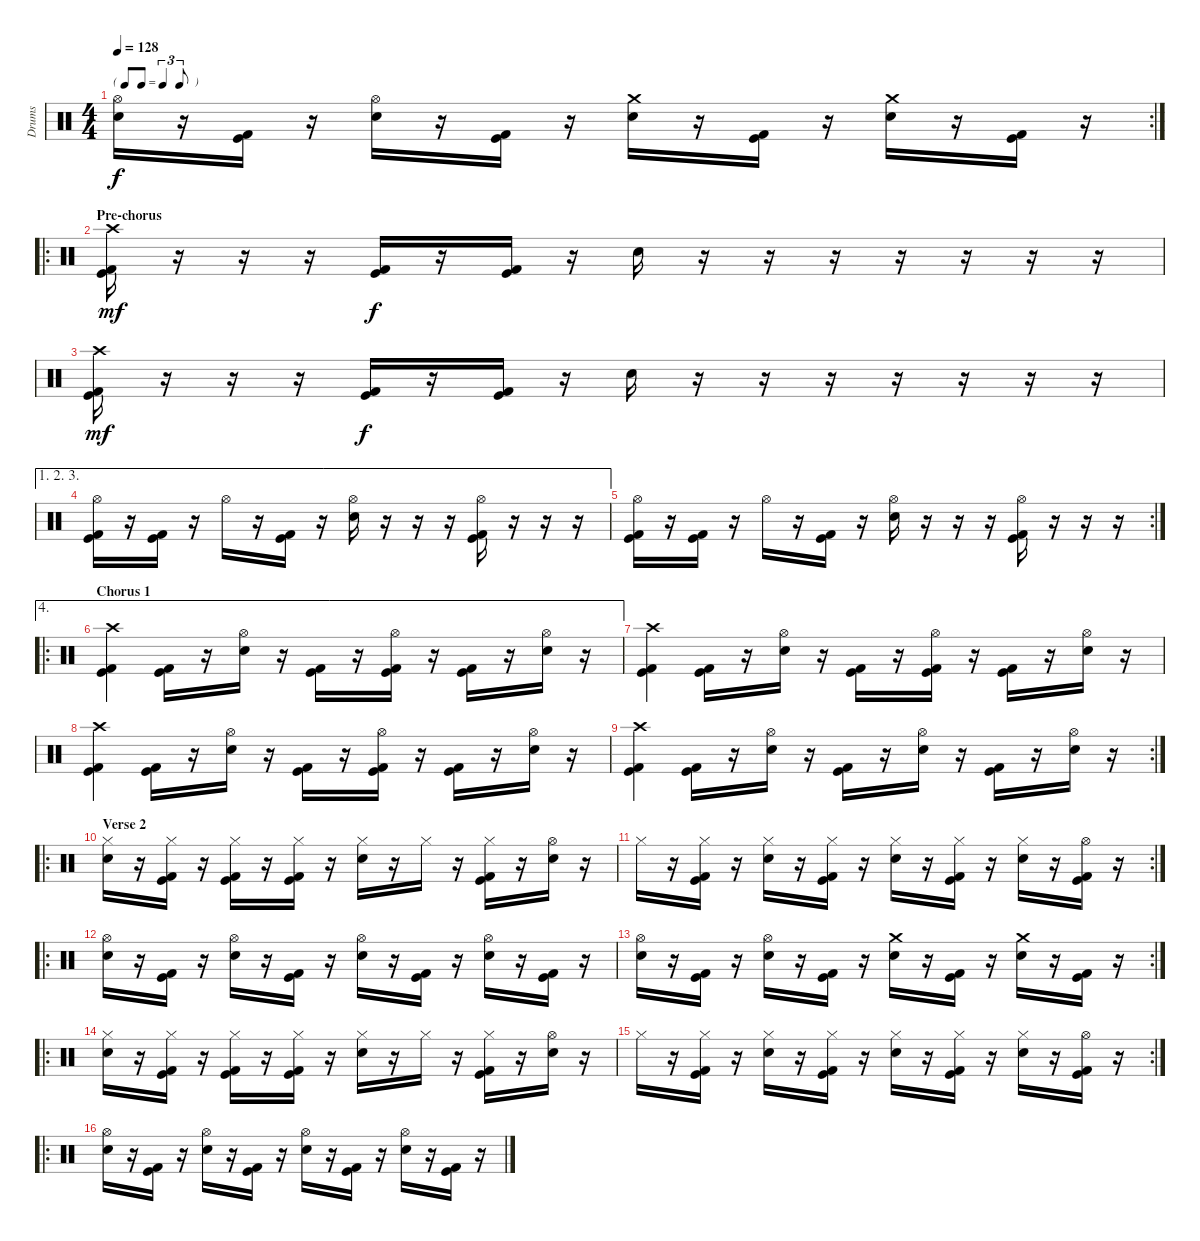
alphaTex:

\track ("Drums" "Drums") {instrument percussion}
\staff {score}
\articulation defaults
\rc 2
\ts (4 4)
\tf triplet8th
\tempo 128
\clef neutral
\ks c
("Hi-Hat (open)" "Electric Snare (hit)").16{dy f} r.16 ("Kick (hit)" "Kick (hit) 2").16 r.16 ("Hi-Hat (open)" "Electric Snare (hit)").16 r.16 ("Kick (hit)" "Kick (hit) 2").16 r.16 ("Crash medium (hit)" "Electric Snare (hit)").16 r.16 ("Kick (hit)" "Kick (hit) 2").16 r.16 ("Crash medium (hit)" "Electric Snare (hit)").16 r.16 ("Kick (hit)" "Kick (hit) 2").16 r.16 |
\ro
\section ("" "Pre-chorus")
("Crash high (hit)" "Kick (hit)" "Kick (hit) 2").16{dy mf} r.16 r.16 r.16 ("Kick (hit)" "Kick (hit) 2").16{dy f} r.16 ("Kick (hit)" "Kick (hit) 2").16 r.16 "Electric Snare (hit)".16 r.16 r.16 r.16 r.16 r.16 r.16 r.16 |
("Crash high (hit)" "Kick (hit)" "Kick (hit) 2").16{dy mf} r.16 r.16 r.16 ("Kick (hit)" "Kick (hit) 2").16{dy f} r.16 ("Kick (hit)" "Kick (hit) 2").16 r.16 "Electric Snare (hit)".16 r.16 r.16 r.16 r.16 r.16 r.16 r.16 |
\ae (1 2 3)
("Hi-Hat (open)" "Kick (hit) 2" "Kick (hit)").16 r.16 ("Kick (hit) 2" "Kick (hit)").16 r.16 "Hi-Hat (open)".16 r.16 ("Kick (hit)" "Kick (hit) 2").16 r.16 ("Hi-Hat (open)" "Electric Snare (hit)").16 r.16 r.16 r.16 ("Hi-Hat (open)" "Kick (hit)" "Kick (hit) 2").16 r.16 r.16 r.16 |
\rc 2
("Hi-Hat (open)" "Kick (hit)" "Kick (hit) 2").16 r.16 ("Kick (hit)" "Kick (hit) 2").16 r.16 "Hi-Hat (open)".16 r.16 ("Kick (hit)" "Kick (hit) 2").16 r.16 ("Hi-Hat (open)" "Electric Snare (hit)").16 r.16 r.16 r.16 ("Hi-Hat (open)" "Kick (hit)" "Kick (hit) 2").16 r.16 r.16 r.16 |
\ae 4
\ro
\section ("" "Chorus 1")
("Crash high (hit)" "Kick (hit)" "Kick (hit) 2").4 ("Kick (hit)" "Kick (hit) 2").16 r.16 ("Hi-Hat (open)" "Electric Snare (hit)").16 r.16 ("Kick (hit) 2" "Kick (hit)").16 r.16 ("Hi-Hat (open)" "Kick (hit)" "Kick (hit) 2").16 r.16 ("Kick (hit)" "Kick (hit) 2").16 r.16 ("Hi-Hat (open)" "Electric Snare (hit)").16 r.16 |
("Crash high (hit)" "Kick (hit)" "Kick (hit) 2").4 ("Kick (hit)" "Kick (hit) 2").16 r.16 ("Hi-Hat (open)" "Electric Snare (hit)").16 r.16 ("Kick (hit) 2" "Kick (hit)").16 r.16 ("Hi-Hat (open)" "Kick (hit)" "Kick (hit) 2").16 r.16 ("Kick (hit)" "Kick (hit) 2").16 r.16 ("Hi-Hat (open)" "Electric Snare (hit)").16 r.16 |
("Crash high (hit)" "Kick (hit)" "Kick (hit) 2").4 ("Kick (hit)" "Kick (hit) 2").16 r.16 ("Hi-Hat (open)" "Electric Snare (hit)").16 r.16 ("Kick (hit) 2" "Kick (hit)").16 r.16 ("Hi-Hat (open)" "Kick (hit)" "Kick (hit) 2").16 r.16 ("Kick (hit)" "Kick (hit) 2").16 r.16 ("Hi-Hat (open)" "Electric Snare (hit)").16 r.16 |
\rc 2
("Crash high (hit)" "Kick (hit)" "Kick (hit) 2").4 ("Kick (hit)" "Kick (hit) 2").16 r.16 ("Hi-Hat (open)" "Electric Snare (hit)").16 r.16 ("Kick (hit) 2" "Kick (hit)").16 r.16 ("Hi-Hat (open)" "Electric Snare (hit)").16 r.16 ("Kick (hit)" "Kick (hit) 2").16 r.16 ("Hi-Hat (open)" "Electric Snare (hit)").16 r.16 |
\ro
\section ("" "Verse 2")
("Hi-Hat (closed)" "Electric Snare (hit)").16 r.16 ("Hi-Hat (closed)" "Kick (hit) 2" "Kick (hit)").16 r.16 ("Hi-Hat (closed)" "Kick (hit)" "Kick (hit) 2").16 r.16 ("Hi-Hat (closed)" "Kick (hit)" "Kick (hit) 2").16 r.16 ("Hi-Hat (closed)" "Electric Snare (hit)").16 r.16 "Hi-Hat (closed)".16 r.16 ("Hi-Hat (closed)" "Kick (hit)" "Kick (hit) 2").16 r.16 ("Hi-Hat (open)" "Electric Snare (hit)").16 r.16 |
\rc 2 "Hi-Hat (closed)".16
r.16 ("Hi-Hat (closed)" "Kick (hit)" "Kick (hit) 2").16 r.16 ("Hi-Hat (closed)" "Electric Snare (hit)").16 r.16 ("Hi-Hat (closed)" "Kick (hit)" "Kick (hit) 2").16 r.16 ("Hi-Hat (closed)" "Electric Snare (hit)").16 r.16 ("Hi-Hat (closed)" "Kick (hit)" "Kick (hit) 2").16 r.16 ("Hi-Hat (closed)" "Electric Snare (hit)").16 r.16 ("Hi-Hat (open)" "Kick (hit)" "Kick (hit) 2").16 r.16 |
\ro
("Hi-Hat (open)" "Electric Snare (hit)").16 r.16 ("Kick (hit)" "Kick (hit) 2").16 r.16 ("Hi-Hat (open)" "Electric Snare (hit)").16 r.16 ("Kick (hit)" "Kick (hit) 2").16 r.16 ("Hi-Hat (open)" "Electric Snare (hit)").16 r.16 ("Kick (hit)" "Kick (hit) 2").16 r.16 ("Hi-Hat (open)" "Electric Snare (hit)").16 r.16 ("Kick (hit)" "Kick (hit) 2").16 r.16 |
\rc 2
("Hi-Hat (open)" "Electric Snare (hit)").16 r.16 ("Kick (hit)" "Kick (hit) 2").16 r.16 ("Hi-Hat (open)" "Electric Snare (hit)").16 r.16 ("Kick (hit)" "Kick (hit) 2").16 r.16 ("Crash medium (hit)" "Electric Snare (hit)").16 r.16 ("Kick (hit)" "Kick (hit) 2").16 r.16 ("Crash medium (hit)" "Electric Snare (hit)").16 r.16 ("Kick (hit)" "Kick (hit) 2").16 r.16 |
\ro
("Hi-Hat (closed)" "Electric Snare (hit)").16 r.16 ("Hi-Hat (closed)" "Kick (hit) 2" "Kick (hit)").16 r.16 ("Hi-Hat (closed)" "Kick (hit)" "Kick (hit) 2").16 r.16 ("Hi-Hat (closed)" "Kick (hit)" "Kick (hit) 2").16 r.16 ("Hi-Hat (closed)" "Electric Snare (hit)").16 r.16 "Hi-Hat (closed)".16 r.16 ("Hi-Hat (closed)" "Kick (hit)" "Kick (hit) 2").16 r.16 ("Hi-Hat (open)" "Electric Snare (hit)").16 r.16 |
\rc 2 "Hi-Hat (closed)".16
r.16 ("Hi-Hat (closed)" "Kick (hit)" "Kick (hit) 2").16 r.16 ("Hi-Hat (closed)" "Electric Snare (hit)").16 r.16 ("Hi-Hat (closed)" "Kick (hit)" "Kick (hit) 2").16 r.16 ("Hi-Hat (closed)" "Electric Snare (hit)").16 r.16 ("Hi-Hat (closed)" "Kick (hit)" "Kick (hit) 2").16 r.16 ("Hi-Hat (closed)" "Electric Snare (hit)").16 r.16 ("Hi-Hat (open)" "Kick (hit)" "Kick (hit) 2").16 r.16 |
\ro
("Hi-Hat (open)" "Electric Snare (hit)").16 r.16 ("Kick (hit)" "Kick (hit) 2").16 r.16 ("Hi-Hat (open)" "Electric Snare (hit)").16 r.16 ("Kick (hit)" "Kick (hit) 2").16 r.16 ("Hi-Hat (open)" "Electric Snare (hit)").16 r.16 ("Kick (hit)" "Kick (hit) 2").16 r.16 ("Hi-Hat (open)" "Electric Snare (hit)").16 r.16 ("Kick (hit)" "Kick (hit) 2").16 r.16
